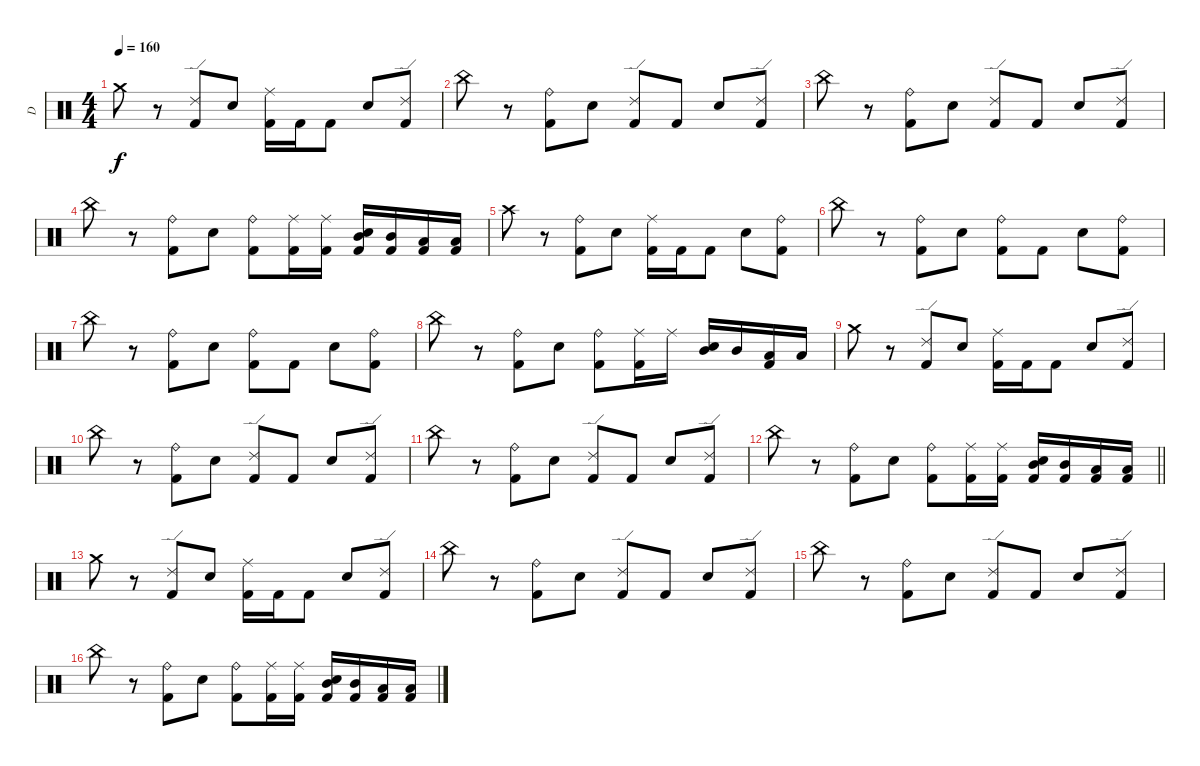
\track ("D" "D") {instrument percussion}
\staff {score}
\articulation defaults
\ts (4 4)
\tempo 160
\clef neutral
\ks c "Crash medium (hit)".8{dy f}
r.8 ("Ride (edge) 2" "Kick (hit) 2").8 "Electric Snare (hit)".8 ("Ride (middle)" "Kick (hit) 2").16 "Kick (hit) 2".16 "Kick (hit) 2".8 "Electric Snare (hit)".8 ("Ride (edge) 2" "Kick (hit) 2").8 |
"China (hit)".8 r.8 ("Ride (bell)" "Kick (hit) 2").8 "Electric Snare (hit)".8 ("Ride (edge) 2" "Kick (hit) 2").8 "Kick (hit) 2".8 "Electric Snare (hit)".8 ("Ride (edge) 2" "Kick (hit) 2").8 |
"China (hit)".8 r.8 ("Ride (bell)" "Kick (hit) 2").8 "Electric Snare (hit)".8 ("Ride (edge) 2" "Kick (hit) 2").8 "Kick (hit) 2".8 "Electric Snare (hit)".8 ("Ride (edge) 2" "Kick (hit) 2").8 |
"China (hit)".8 r.8 ("Ride (bell)" "Kick (hit) 2").8 "Electric Snare (hit)".8 ("Ride (bell)" "Kick (hit) 2").8 ("Ride (middle)" "Kick (hit) 2").16 ("Ride (middle)" "Kick (hit) 2").16 ("Mid Tom (hit)" "Electric Snare (hit)" "Kick (hit) 2").16 ("Mid Tom (hit)" "Kick (hit) 2").16 ("Low Tom (hit)" "Kick (hit) 2").16 ("Low Tom (hit)" "Kick (hit) 2").16 |
"Crash high (hit)".8 r.8 ("Ride (bell)" "Kick (hit) 2").8 "Electric Snare (hit)".8 ("Ride (middle)" "Kick (hit) 2").16 "Kick (hit) 2".16 "Kick (hit) 2".8 "Electric Snare (hit)".8 ("Ride (bell)" "Kick (hit) 2").8 |
"China (hit)".8 r.8 ("Ride (bell)" "Kick (hit) 2").8 "Electric Snare (hit)".8 ("Ride (bell)" "Kick (hit) 2").8 "Kick (hit) 2".8 "Electric Snare (hit)".8 ("Ride (bell)" "Kick (hit) 2").8 |
"China (hit)".8 r.8 ("Ride (bell)" "Kick (hit) 2").8 "Electric Snare (hit)".8 ("Ride (bell)" "Kick (hit) 2").8 "Kick (hit) 2".8 "Electric Snare (hit)".8 ("Ride (bell)" "Kick (hit) 2").8 |
"China (hit)".8 r.8 ("Ride (bell)" "Kick (hit) 2").8 "Electric Snare (hit)".8 ("Ride (bell)" "Kick (hit) 2").8 ("Ride (middle)" "Kick (hit) 2").16 "Ride (middle)".16 ("Mid Tom (hit)" "Electric Snare (hit)").16 "Mid Tom (hit)".16 ("Low Tom (hit)" "Kick (hit) 2").16 "Low Tom (hit)".16 |
"Crash medium (hit)".8 r.8 ("Ride (edge) 2" "Kick (hit) 2").8 "Electric Snare (hit)".8 ("Ride (middle)" "Kick (hit) 2").16 "Kick (hit) 2".16 "Kick (hit) 2".8 "Electric Snare (hit)".8 ("Ride (edge) 2" "Kick (hit) 2").8 |
"China (hit)".8 r.8 ("Ride (bell)" "Kick (hit) 2").8 "Electric Snare (hit)".8 ("Ride (edge) 2" "Kick (hit) 2").8 "Kick (hit) 2".8 "Electric Snare (hit)".8 ("Ride (edge) 2" "Kick (hit) 2").8 |
"China (hit)".8 r.8 ("Ride (bell)" "Kick (hit) 2").8 "Electric Snare (hit)".8 ("Ride (edge) 2" "Kick (hit) 2").8 "Kick (hit) 2".8 "Electric Snare (hit)".8 ("Ride (edge) 2" "Kick (hit) 2").8 |
\barLineRight lightlight "China (hit)".8
r.8 ("Ride (bell)" "Kick (hit) 2").8 "Electric Snare (hit)".8 ("Ride (bell)" "Kick (hit) 2").8 ("Ride (middle)" "Kick (hit) 2").16 ("Ride (middle)" "Kick (hit) 2").16 ("Mid Tom (hit)" "Electric Snare (hit)" "Kick (hit) 2").16 ("Mid Tom (hit)" "Kick (hit) 2").16 ("Low Tom (hit)" "Kick (hit) 2").16 ("Low Tom (hit)" "Kick (hit) 2").16 |
\section ("" "")
"Crash medium (hit)".8 r.8 ("Ride (edge) 2" "Kick (hit) 2").8 "Electric Snare (hit)".8 ("Ride (middle)" "Kick (hit) 2").16 "Kick (hit) 2".16 "Kick (hit) 2".8 "Electric Snare (hit)".8 ("Ride (edge) 2" "Kick (hit) 2").8 |
"China (hit)".8 r.8 ("Ride (bell)" "Kick (hit) 2").8 "Electric Snare (hit)".8 ("Ride (edge) 2" "Kick (hit) 2").8 "Kick (hit) 2".8 "Electric Snare (hit)".8 ("Ride (edge) 2" "Kick (hit) 2").8 |
"China (hit)".8 r.8 ("Ride (bell)" "Kick (hit) 2").8 "Electric Snare (hit)".8 ("Ride (edge) 2" "Kick (hit) 2").8 "Kick (hit) 2".8 "Electric Snare (hit)".8 ("Ride (edge) 2" "Kick (hit) 2").8 |
"China (hit)".8 r.8 ("Ride (bell)" "Kick (hit) 2").8 "Electric Snare (hit)".8 ("Ride (bell)" "Kick (hit) 2").8 ("Ride (middle)" "Kick (hit) 2").16 ("Ride (middle)" "Kick (hit) 2").16 ("Mid Tom (hit)" "Electric Snare (hit)" "Kick (hit) 2").16 ("Mid Tom (hit)" "Kick (hit) 2").16 ("Low Tom (hit)" "Kick (hit) 2").16 ("Low Tom (hit)" "Kick (hit) 2").16
